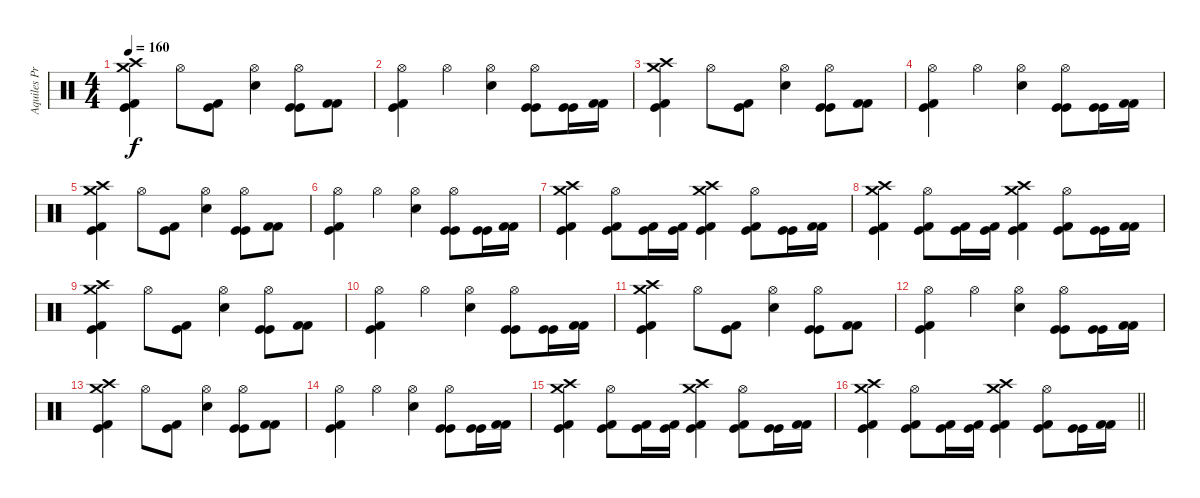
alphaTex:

\track ("Aquiles Priester" "Aquiles Pr") {instrument percussion}
\staff {score}
\articulation defaults
\ts (4 4)
\tempo 160
\clef neutral
\ks c
("Crash medium (hit)" "Crash high (hit)" "Kick (hit)" "Kick (hit) 2").4{dy f} "Hi-Hat (open)".8 ("Kick (hit) 2" "Kick (hit)").8 ("Hi-Hat (open)" "Electric Snare (hit)").4 ("Hi-Hat (open)" "Kick (hit)" "Kick (hit)").8 ("Kick (hit) 2" "Kick (hit) 2").8 |
("Hi-Hat (open)" "Kick (hit) 2" "Kick (hit)").4 "Hi-Hat (open)".4 ("Hi-Hat (open)" "Electric Snare (hit)").4 ("Hi-Hat (open)" "Kick (hit)" "Kick (hit)").8 ("Kick (hit)" "Kick (hit)").16 ("Kick (hit) 2" "Kick (hit) 2").16 |
("Crash medium (hit)" "Crash high (hit)" "Kick (hit)" "Kick (hit) 2").4 "Hi-Hat (open)".8 ("Kick (hit) 2" "Kick (hit)").8 ("Hi-Hat (open)" "Electric Snare (hit)").4 ("Hi-Hat (open)" "Kick (hit)" "Kick (hit)").8 ("Kick (hit) 2" "Kick (hit) 2").8 |
("Hi-Hat (open)" "Kick (hit) 2" "Kick (hit)").4 "Hi-Hat (open)".4 ("Hi-Hat (open)" "Electric Snare (hit)").4 ("Hi-Hat (open)" "Kick (hit)" "Kick (hit)").8 ("Kick (hit)" "Kick (hit)").16 ("Kick (hit) 2" "Kick (hit) 2").16 |
("Crash medium (hit)" "Crash high (hit)" "Kick (hit)" "Kick (hit) 2").4 "Hi-Hat (open)".8 ("Kick (hit) 2" "Kick (hit)").8 ("Hi-Hat (open)" "Electric Snare (hit)").4 ("Hi-Hat (open)" "Kick (hit)" "Kick (hit)").8 ("Kick (hit) 2" "Kick (hit) 2").8 |
("Hi-Hat (open)" "Kick (hit) 2" "Kick (hit)").4 "Hi-Hat (open)".4 ("Hi-Hat (open)" "Electric Snare (hit)").4 ("Hi-Hat (open)" "Kick (hit)" "Kick (hit)").8 ("Kick (hit)" "Kick (hit)").16 ("Kick (hit) 2" "Kick (hit) 2").16 |
("Crash medium (hit)" "Crash high (hit)" "Kick (hit) 2" "Kick (hit)").4 ("Hi-Hat (open)" "Kick (hit)" "Kick (hit) 2").8 ("Kick (hit) 2" "Kick (hit)").16 ("Kick (hit) 2" "Kick (hit)").16 ("Crash medium (hit)" "Crash high (hit)" "Kick (hit) 2" "Kick (hit)").4 ("Hi-Hat (open)" "Kick (hit) 2" "Kick (hit)").8 ("Kick (hit)" "Kick (hit)").16 ("Kick (hit) 2" "Kick (hit) 2").16 |
("Crash medium (hit)" "Crash high (hit)" "Kick (hit) 2" "Kick (hit)").4 ("Hi-Hat (open)" "Kick (hit)" "Kick (hit) 2").8 ("Kick (hit) 2" "Kick (hit)").16 ("Kick (hit) 2" "Kick (hit)").16 ("Crash medium (hit)" "Crash high (hit)" "Kick (hit) 2" "Kick (hit)").4 ("Hi-Hat (open)" "Kick (hit) 2" "Kick (hit)").8 ("Kick (hit)" "Kick (hit)").16 ("Kick (hit) 2" "Kick (hit) 2").16 |
("Crash medium (hit)" "Crash high (hit)" "Kick (hit)" "Kick (hit) 2").4 "Hi-Hat (open)".8 ("Kick (hit) 2" "Kick (hit)").8 ("Hi-Hat (open)" "Electric Snare (hit)").4 ("Hi-Hat (open)" "Kick (hit)" "Kick (hit)").8 ("Kick (hit) 2" "Kick (hit) 2").8 |
("Hi-Hat (open)" "Kick (hit) 2" "Kick (hit)").4 "Hi-Hat (open)".4 ("Hi-Hat (open)" "Electric Snare (hit)").4 ("Hi-Hat (open)" "Kick (hit)" "Kick (hit)").8 ("Kick (hit)" "Kick (hit)").16 ("Kick (hit) 2" "Kick (hit) 2").16 |
("Crash medium (hit)" "Crash high (hit)" "Kick (hit)" "Kick (hit) 2").4 "Hi-Hat (open)".8 ("Kick (hit) 2" "Kick (hit)").8 ("Hi-Hat (open)" "Electric Snare (hit)").4 ("Hi-Hat (open)" "Kick (hit)" "Kick (hit)").8 ("Kick (hit) 2" "Kick (hit) 2").8 |
("Hi-Hat (open)" "Kick (hit) 2" "Kick (hit)").4 "Hi-Hat (open)".4 ("Hi-Hat (open)" "Electric Snare (hit)").4 ("Hi-Hat (open)" "Kick (hit)" "Kick (hit)").8 ("Kick (hit)" "Kick (hit)").16 ("Kick (hit) 2" "Kick (hit) 2").16 |
("Crash medium (hit)" "Crash high (hit)" "Kick (hit)" "Kick (hit) 2").4 "Hi-Hat (open)".8 ("Kick (hit) 2" "Kick (hit)").8 ("Hi-Hat (open)" "Electric Snare (hit)").4 ("Hi-Hat (open)" "Kick (hit)" "Kick (hit)").8 ("Kick (hit) 2" "Kick (hit) 2").8 |
("Hi-Hat (open)" "Kick (hit) 2" "Kick (hit)").4 "Hi-Hat (open)".4 ("Hi-Hat (open)" "Electric Snare (hit)").4 ("Hi-Hat (open)" "Kick (hit)" "Kick (hit)").8 ("Kick (hit)" "Kick (hit)").16 ("Kick (hit) 2" "Kick (hit) 2").16 |
("Crash medium (hit)" "Crash high (hit)" "Kick (hit) 2" "Kick (hit)").4 ("Hi-Hat (open)" "Kick (hit)" "Kick (hit) 2").8 ("Kick (hit) 2" "Kick (hit)").16 ("Kick (hit) 2" "Kick (hit)").16 ("Crash medium (hit)" "Crash high (hit)" "Kick (hit) 2" "Kick (hit)").4 ("Hi-Hat (open)" "Kick (hit) 2" "Kick (hit)").8 ("Kick (hit)" "Kick (hit)").16 ("Kick (hit) 2" "Kick (hit) 2").16 |
\barLineRight lightlight
("Crash medium (hit)" "Crash high (hit)" "Kick (hit) 2" "Kick (hit)").4 ("Hi-Hat (open)" "Kick (hit)" "Kick (hit) 2").8 ("Kick (hit) 2" "Kick (hit)").16 ("Kick (hit) 2" "Kick (hit)").16 ("Crash medium (hit)" "Crash high (hit)" "Kick (hit) 2" "Kick (hit)").4 ("Hi-Hat (open)" "Kick (hit) 2" "Kick (hit)").8 ("Kick (hit)" "Kick (hit)").16 ("Kick (hit) 2" "Kick (hit) 2").16
